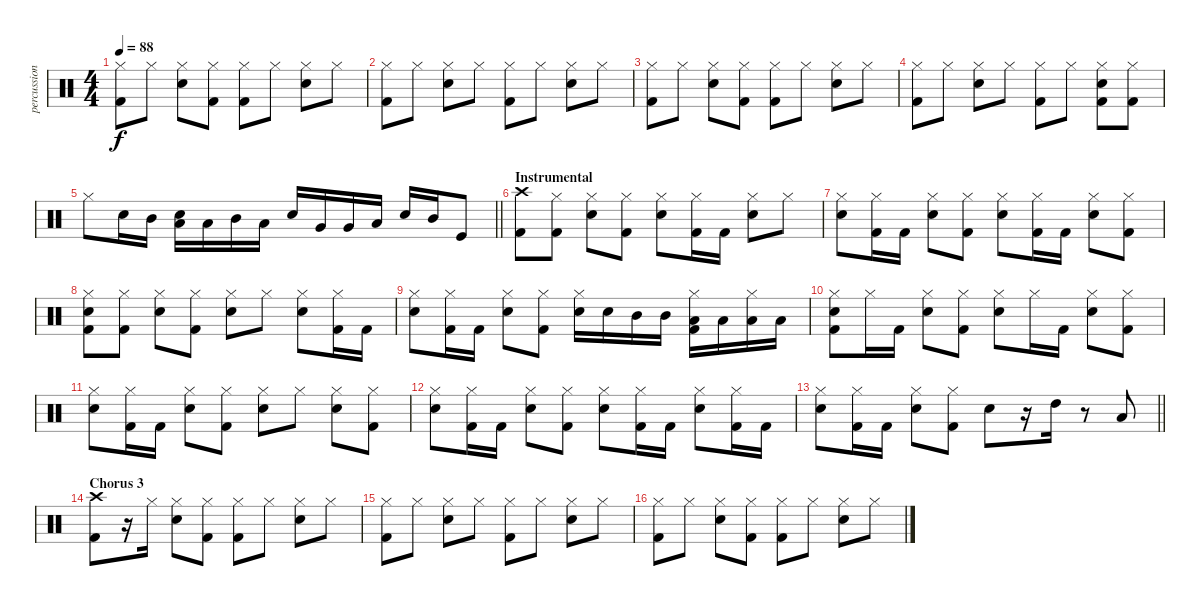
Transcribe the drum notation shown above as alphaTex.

\track ("percussion" "percussion") {instrument percussion}
\staff {score}
\articulation defaults
\ts (4 4)
\tempo 88
\clef neutral
\ks c
("Hi-Hat (closed)" "Kick (hit) 2").8{dy f} "Hi-Hat (closed)".8 ("Snare (hit) 2" "Hi-Hat (closed)").8 ("Hi-Hat (closed)" "Kick (hit) 2").8 ("Hi-Hat (closed)" "Kick (hit) 2").8 "Hi-Hat (closed)".8 ("Snare (hit) 2" "Hi-Hat (closed)").8 "Hi-Hat (closed)".8 |
("Hi-Hat (closed)" "Kick (hit) 2").8 "Hi-Hat (closed)".8 ("Snare (hit) 2" "Hi-Hat (closed)").8 "Hi-Hat (closed)".8 ("Hi-Hat (closed)" "Kick (hit) 2").8 "Hi-Hat (closed)".8 ("Snare (hit) 2" "Hi-Hat (closed)").8 "Hi-Hat (closed)".8 |
("Hi-Hat (closed)" "Kick (hit) 2").8 "Hi-Hat (closed)".8 ("Snare (hit) 2" "Hi-Hat (closed)").8 ("Hi-Hat (closed)" "Kick (hit) 2").8 ("Hi-Hat (closed)" "Kick (hit) 2").8 "Hi-Hat (closed)".8 ("Snare (hit) 2" "Hi-Hat (closed)").8 "Hi-Hat (closed)".8 |
("Hi-Hat (closed)" "Kick (hit) 2").8 "Hi-Hat (closed)".8 ("Snare (hit) 2" "Hi-Hat (closed)").8 "Hi-Hat (closed)".8 ("Hi-Hat (closed)" "Kick (hit) 2").8 "Hi-Hat (closed)".8 ("Snare (hit) 2" "Hi-Hat (closed)" "Kick (hit) 2").8 ("Hi-Hat (closed)" "Kick (hit) 2").8 |
\barLineRight lightlight "Hi-Hat (closed)".8 "Snare (hit) 2".16 "Mid Tom (hit)".16
("Low Tom (hit)" "Snare (hit) 2").16 "Low Tom (hit)".16 "Mid Tom (hit)".16 "Low Tom (hit)".16 "Snare (hit) 2".16 "Very Low Tom (hit)".16 "Very Low Tom (hit)".16 "Low Tom (hit)".16 "Snare (hit) 2".16 "Mid Tom (hit)".16 "Kick (hit)".8 |
\section ("" "Instrumental")
("Crash high (hit)" "Kick (hit) 2").8 ("Hi-Hat (closed)" "Kick (hit) 2").8 ("Snare (hit) 2" "Hi-Hat (closed)").8 ("Hi-Hat (closed)" "Kick (hit) 2").8 ("Snare (hit) 2" "Hi-Hat (closed)").8 ("Hi-Hat (closed)" "Kick (hit) 2").16 "Kick (hit) 2".16 ("Snare (hit) 2" "Hi-Hat (closed)").8 "Hi-Hat (closed)".8 |
("Snare (hit) 2" "Hi-Hat (closed)").8 ("Hi-Hat (closed)" "Kick (hit) 2").16 "Kick (hit) 2".16 ("Snare (hit) 2" "Hi-Hat (closed)").8 ("Hi-Hat (closed)" "Kick (hit) 2").8 ("Snare (hit) 2" "Hi-Hat (closed)").8 ("Hi-Hat (closed)" "Kick (hit) 2").16 "Kick (hit) 2".16 ("Snare (hit) 2" "Hi-Hat (closed)").8 ("Hi-Hat (closed)" "Kick (hit) 2").8 |
("Snare (hit) 2" "Hi-Hat (closed)" "Kick (hit) 2").8 ("Hi-Hat (closed)" "Kick (hit) 2").8 ("Snare (hit) 2" "Hi-Hat (closed)").8 ("Hi-Hat (closed)" "Kick (hit) 2").8 ("Snare (hit) 2" "Hi-Hat (closed)").8 "Hi-Hat (closed)".8 ("Snare (hit) 2" "Hi-Hat (closed)").8 ("Hi-Hat (closed)" "Kick (hit) 2").16 "Kick (hit) 2".16 |
("Snare (hit) 2" "Hi-Hat (closed)").8 ("Hi-Hat (closed)" "Kick (hit) 2").16 "Kick (hit) 2".16 ("Snare (hit) 2" "Hi-Hat (closed)").8 ("Hi-Hat (closed)" "Kick (hit) 2").8 ("Snare (hit) 2" "Hi-Hat (closed)").16 "Snare (hit) 2".16 "Mid Tom (hit)".16 "Mid Tom (hit)".16 ("Low Tom (hit)" "Hi-Hat (closed)" "Kick (hit) 2").16 "Low Tom (hit)".16 ("Low Tom (hit)" "Hi-Hat (closed)").16 "Low Tom (hit)".16 |
("Snare (hit) 2" "Hi-Hat (closed)" "Kick (hit) 2").8 "Hi-Hat (closed)".16 "Kick (hit) 2".16 ("Snare (hit) 2" "Hi-Hat (closed)").8 ("Hi-Hat (closed)" "Kick (hit) 2").8 ("Snare (hit) 2" "Hi-Hat (closed)").8 "Hi-Hat (closed)".16 "Kick (hit) 2".16 ("Snare (hit) 2" "Hi-Hat (closed)").8 ("Hi-Hat (closed)" "Kick (hit) 2").8 |
("Snare (hit) 2" "Hi-Hat (closed)").8 ("Hi-Hat (closed)" "Kick (hit) 2").16 "Kick (hit) 2".16 ("Snare (hit) 2" "Hi-Hat (closed)").8 ("Hi-Hat (closed)" "Kick (hit) 2").8 ("Snare (hit) 2" "Hi-Hat (closed)").8 "Hi-Hat (closed)".8 ("Snare (hit) 2" "Hi-Hat (closed)").8 ("Hi-Hat (closed)" "Kick (hit) 2").8 |
("Snare (hit) 2" "Hi-Hat (closed)").8 ("Hi-Hat (closed)" "Kick (hit) 2").16 "Kick (hit) 2".16 ("Snare (hit) 2" "Hi-Hat (closed)").8 ("Hi-Hat (closed)" "Kick (hit) 2").8 ("Snare (hit) 2" "Hi-Hat (closed)").8 ("Hi-Hat (closed)" "Kick (hit) 2").16 "Kick (hit) 2".16 ("Snare (hit) 2" "Hi-Hat (closed)").8 ("Hi-Hat (closed)" "Kick (hit) 2").16 "Kick (hit) 2".16 |
\barLineRight lightlight
("Snare (hit) 2" "Hi-Hat (closed)").8 ("Hi-Hat (closed)" "Kick (hit) 2").16 "Kick (hit) 2".16 ("Snare (hit) 2" "Hi-Hat (closed)").8 ("Hi-Hat (closed)" "Kick (hit) 2").8 "Snare (hit) 2".8 r.16 "High Tom (hit)".16 r.8 "Low Tom (hit)".8 |
\section ("" "Chorus 3")
("Crash high (hit)" "Kick (hit) 2").8 r.16 "Hi-Hat (closed)".16 ("Snare (hit) 2" "Hi-Hat (closed)").8 ("Hi-Hat (closed)" "Kick (hit) 2").8 ("Hi-Hat (closed)" "Kick (hit) 2").8 "Hi-Hat (closed)".8 ("Snare (hit) 2" "Hi-Hat (closed)").8 "Hi-Hat (closed)".8 |
("Hi-Hat (closed)" "Kick (hit) 2").8 "Hi-Hat (closed)".8 ("Snare (hit) 2" "Hi-Hat (closed)").8 "Hi-Hat (closed)".8 ("Hi-Hat (closed)" "Kick (hit) 2").8 "Hi-Hat (closed)".8 ("Snare (hit) 2" "Hi-Hat (closed)").8 "Hi-Hat (closed)".8 |
("Hi-Hat (closed)" "Kick (hit) 2").8 "Hi-Hat (closed)".8 ("Snare (hit) 2" "Hi-Hat (closed)").8 ("Hi-Hat (closed)" "Kick (hit) 2").8 ("Hi-Hat (closed)" "Kick (hit) 2").8 "Hi-Hat (closed)".8 ("Snare (hit) 2" "Hi-Hat (closed)").8 "Hi-Hat (closed)".8
